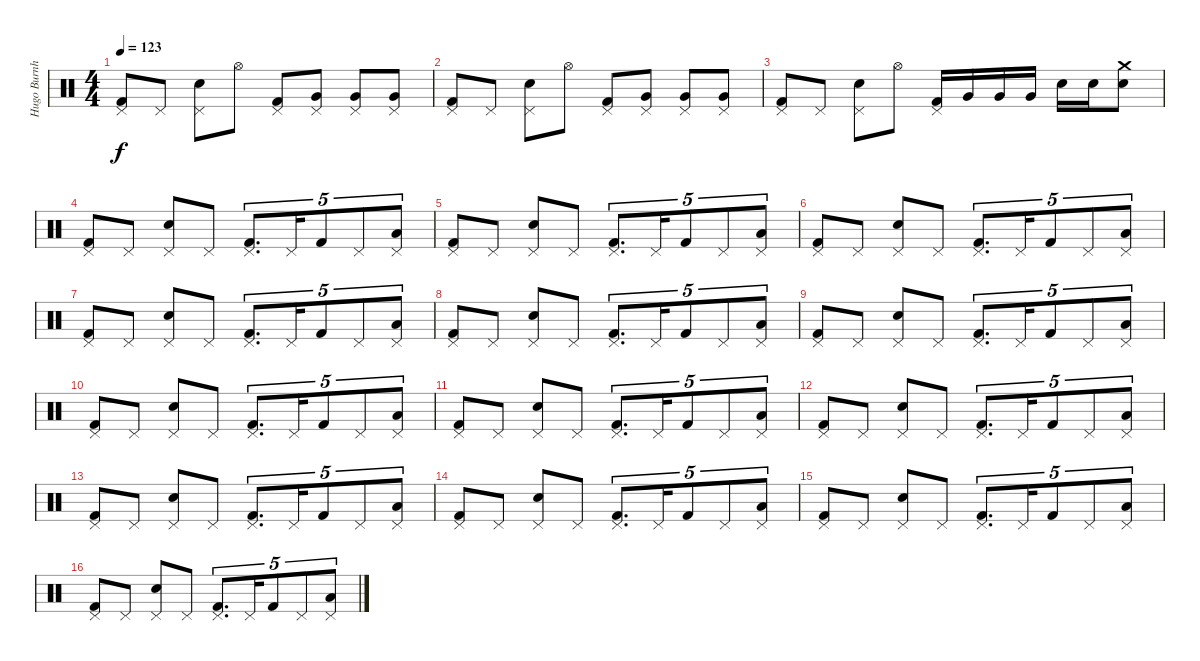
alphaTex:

\track ("Hugo Burnham" "Hugo Burnh") {instrument percussion}
\staff {score}
\articulation defaults
\ts (4 4)
\tempo 123
\clef neutral
\ks c
("Pedal Hi-Hat (hit)" "Kick (hit) 2").8{dy f} "Pedal Hi-Hat (hit)".8 ("Pedal Hi-Hat (hit)" "Electric Snare (hit)").8 "Hi-Hat (open)".8 ("Pedal Hi-Hat (hit)" "Kick (hit) 2").8 ("Pedal Hi-Hat (hit)" "Very Low Tom (hit)").8 ("Pedal Hi-Hat (hit)" "Very Low Tom (hit)").8 ("Pedal Hi-Hat (hit)" "Very Low Tom (hit)").8 |
("Pedal Hi-Hat (hit)" "Kick (hit) 2").8 "Pedal Hi-Hat (hit)".8 ("Pedal Hi-Hat (hit)" "Electric Snare (hit)").8 "Hi-Hat (open)".8 ("Pedal Hi-Hat (hit)" "Kick (hit) 2").8 ("Pedal Hi-Hat (hit)" "Very Low Tom (hit)").8 ("Pedal Hi-Hat (hit)" "Very Low Tom (hit)").8 ("Pedal Hi-Hat (hit)" "Very Low Tom (hit)").8 |
("Pedal Hi-Hat (hit)" "Kick (hit) 2").8 "Pedal Hi-Hat (hit)".8 ("Pedal Hi-Hat (hit)" "Electric Snare (hit)").8 "Hi-Hat (open)".8 ("Pedal Hi-Hat (hit)" "Kick (hit) 2").16 "Very Low Tom (hit)".16 "Very Low Tom (hit)".16 "Very Low Tom (hit)".16 "Electric Snare (hit)".16 "Electric Snare (hit)".16 ("Crash medium (hit)" "Electric Snare (hit)").8 |
("Pedal Hi-Hat (hit)" "Kick (hit) 2").8 "Pedal Hi-Hat (hit)".8 ("Pedal Hi-Hat (hit)" "Electric Snare (hit)").8 "Pedal Hi-Hat (hit)".8 ("Pedal Hi-Hat (hit)" "Kick (hit) 2").8{d tu (5 4)} "Pedal Hi-Hat (hit)".16{tu (5 4)} "Kick (hit) 2".8{tu (5 4)} "Pedal Hi-Hat (hit)".8{tu (5 4)} ("Pedal Hi-Hat (hit)" "Low Floor Tom (hit)").8{tu (5 4)} |
("Pedal Hi-Hat (hit)" "Kick (hit) 2").8 "Pedal Hi-Hat (hit)".8 ("Pedal Hi-Hat (hit)" "Electric Snare (hit)").8 "Pedal Hi-Hat (hit)".8 ("Pedal Hi-Hat (hit)" "Kick (hit) 2").8{d tu (5 4)} "Pedal Hi-Hat (hit)".16{tu (5 4)} "Kick (hit) 2".8{tu (5 4)} "Pedal Hi-Hat (hit)".8{tu (5 4)} ("Pedal Hi-Hat (hit)" "Low Floor Tom (hit)").8{tu (5 4)} |
("Pedal Hi-Hat (hit)" "Kick (hit) 2").8 "Pedal Hi-Hat (hit)".8 ("Pedal Hi-Hat (hit)" "Electric Snare (hit)").8 "Pedal Hi-Hat (hit)".8 ("Pedal Hi-Hat (hit)" "Kick (hit) 2").8{d tu (5 4)} "Pedal Hi-Hat (hit)".16{tu (5 4)} "Kick (hit) 2".8{tu (5 4)} "Pedal Hi-Hat (hit)".8{tu (5 4)} ("Pedal Hi-Hat (hit)" "Low Floor Tom (hit)").8{tu (5 4)} |
("Pedal Hi-Hat (hit)" "Kick (hit) 2").8 "Pedal Hi-Hat (hit)".8 ("Pedal Hi-Hat (hit)" "Electric Snare (hit)").8 "Pedal Hi-Hat (hit)".8 ("Pedal Hi-Hat (hit)" "Kick (hit) 2").8{d tu (5 4)} "Pedal Hi-Hat (hit)".16{tu (5 4)} "Kick (hit) 2".8{tu (5 4)} "Pedal Hi-Hat (hit)".8{tu (5 4)} ("Pedal Hi-Hat (hit)" "Low Floor Tom (hit)").8{tu (5 4)} |
("Pedal Hi-Hat (hit)" "Kick (hit) 2").8 "Pedal Hi-Hat (hit)".8 ("Pedal Hi-Hat (hit)" "Electric Snare (hit)").8 "Pedal Hi-Hat (hit)".8 ("Pedal Hi-Hat (hit)" "Kick (hit) 2").8{d tu (5 4)} "Pedal Hi-Hat (hit)".16{tu (5 4)} "Kick (hit) 2".8{tu (5 4)} "Pedal Hi-Hat (hit)".8{tu (5 4)} ("Pedal Hi-Hat (hit)" "Low Floor Tom (hit)").8{tu (5 4)} |
("Pedal Hi-Hat (hit)" "Kick (hit) 2").8 "Pedal Hi-Hat (hit)".8 ("Pedal Hi-Hat (hit)" "Electric Snare (hit)").8 "Pedal Hi-Hat (hit)".8 ("Pedal Hi-Hat (hit)" "Kick (hit) 2").8{d tu (5 4)} "Pedal Hi-Hat (hit)".16{tu (5 4)} "Kick (hit) 2".8{tu (5 4)} "Pedal Hi-Hat (hit)".8{tu (5 4)} ("Pedal Hi-Hat (hit)" "Low Floor Tom (hit)").8{tu (5 4)} |
("Pedal Hi-Hat (hit)" "Kick (hit) 2").8 "Pedal Hi-Hat (hit)".8 ("Pedal Hi-Hat (hit)" "Electric Snare (hit)").8 "Pedal Hi-Hat (hit)".8 ("Pedal Hi-Hat (hit)" "Kick (hit) 2").8{d tu (5 4)} "Pedal Hi-Hat (hit)".16{tu (5 4)} "Kick (hit) 2".8{tu (5 4)} "Pedal Hi-Hat (hit)".8{tu (5 4)} ("Pedal Hi-Hat (hit)" "Low Floor Tom (hit)").8{tu (5 4)} |
("Pedal Hi-Hat (hit)" "Kick (hit) 2").8 "Pedal Hi-Hat (hit)".8 ("Pedal Hi-Hat (hit)" "Electric Snare (hit)").8 "Pedal Hi-Hat (hit)".8 ("Pedal Hi-Hat (hit)" "Kick (hit) 2").8{d tu (5 4)} "Pedal Hi-Hat (hit)".16{tu (5 4)} "Kick (hit) 2".8{tu (5 4)} "Pedal Hi-Hat (hit)".8{tu (5 4)} ("Pedal Hi-Hat (hit)" "Low Floor Tom (hit)").8{tu (5 4)} |
("Pedal Hi-Hat (hit)" "Kick (hit) 2").8 "Pedal Hi-Hat (hit)".8 ("Pedal Hi-Hat (hit)" "Electric Snare (hit)").8 "Pedal Hi-Hat (hit)".8 ("Pedal Hi-Hat (hit)" "Kick (hit) 2").8{d tu (5 4)} "Pedal Hi-Hat (hit)".16{tu (5 4)} "Kick (hit) 2".8{tu (5 4)} "Pedal Hi-Hat (hit)".8{tu (5 4)} ("Pedal Hi-Hat (hit)" "Low Floor Tom (hit)").8{tu (5 4)} |
("Pedal Hi-Hat (hit)" "Kick (hit) 2").8 "Pedal Hi-Hat (hit)".8 ("Pedal Hi-Hat (hit)" "Electric Snare (hit)").8 "Pedal Hi-Hat (hit)".8 ("Pedal Hi-Hat (hit)" "Kick (hit) 2").8{d tu (5 4)} "Pedal Hi-Hat (hit)".16{tu (5 4)} "Kick (hit) 2".8{tu (5 4)} "Pedal Hi-Hat (hit)".8{tu (5 4)} ("Pedal Hi-Hat (hit)" "Low Floor Tom (hit)").8{tu (5 4)} |
("Pedal Hi-Hat (hit)" "Kick (hit) 2").8 "Pedal Hi-Hat (hit)".8 ("Pedal Hi-Hat (hit)" "Electric Snare (hit)").8 "Pedal Hi-Hat (hit)".8 ("Pedal Hi-Hat (hit)" "Kick (hit) 2").8{d tu (5 4)} "Pedal Hi-Hat (hit)".16{tu (5 4)} "Kick (hit) 2".8{tu (5 4)} "Pedal Hi-Hat (hit)".8{tu (5 4)} ("Pedal Hi-Hat (hit)" "Low Floor Tom (hit)").8{tu (5 4)} |
("Pedal Hi-Hat (hit)" "Kick (hit) 2").8 "Pedal Hi-Hat (hit)".8 ("Pedal Hi-Hat (hit)" "Electric Snare (hit)").8 "Pedal Hi-Hat (hit)".8 ("Pedal Hi-Hat (hit)" "Kick (hit) 2").8{d tu (5 4)} "Pedal Hi-Hat (hit)".16{tu (5 4)} "Kick (hit) 2".8{tu (5 4)} "Pedal Hi-Hat (hit)".8{tu (5 4)} ("Pedal Hi-Hat (hit)" "Low Floor Tom (hit)").8{tu (5 4)} |
("Pedal Hi-Hat (hit)" "Kick (hit) 2").8 "Pedal Hi-Hat (hit)".8 ("Pedal Hi-Hat (hit)" "Electric Snare (hit)").8 "Pedal Hi-Hat (hit)".8 ("Pedal Hi-Hat (hit)" "Kick (hit) 2").8{d tu (5 4)} "Pedal Hi-Hat (hit)".16{tu (5 4)} "Kick (hit) 2".8{tu (5 4)} "Pedal Hi-Hat (hit)".8{tu (5 4)} ("Pedal Hi-Hat (hit)" "Low Floor Tom (hit)").8{tu (5 4)}
